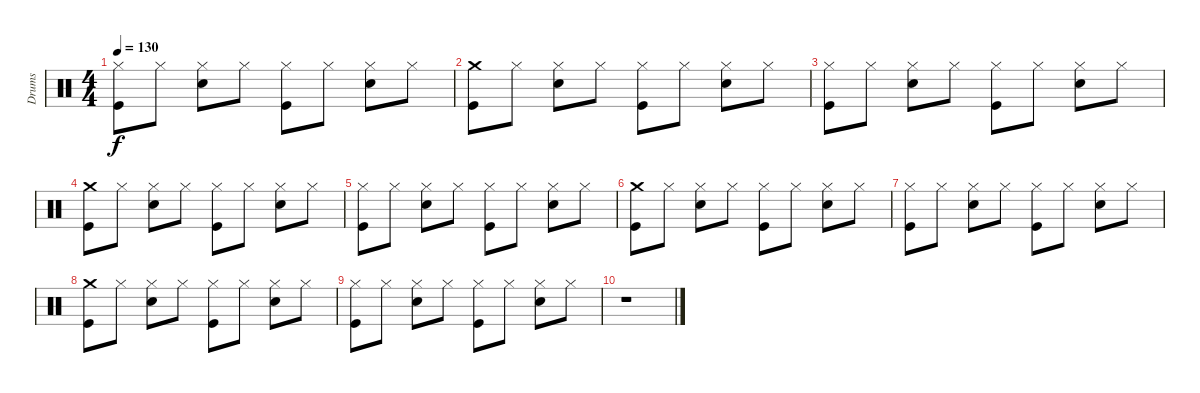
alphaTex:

\track ("Drums" "Drums") {instrument percussion}
\staff {score}
\articulation defaults
\ts (4 4)
\tempo 130
\clef neutral
\ks c
("Hi-Hat (closed)" "Kick (hit)").8{dy f} "Hi-Hat (closed)".8 ("Snare (hit) 2" "Hi-Hat (closed)").8 "Hi-Hat (closed)".8 ("Hi-Hat (closed)" "Kick (hit)").8 "Hi-Hat (closed)".8 ("Snare (hit) 2" "Hi-Hat (closed)").8 "Hi-Hat (closed)".8 |
("Crash medium (hit)" "Kick (hit)").8 "Hi-Hat (closed)".8 ("Snare (hit) 2" "Hi-Hat (closed)").8 "Hi-Hat (closed)".8 ("Hi-Hat (closed)" "Kick (hit)").8 "Hi-Hat (closed)".8 ("Snare (hit) 2" "Hi-Hat (closed)").8 "Hi-Hat (closed)".8 |
("Hi-Hat (closed)" "Kick (hit)").8 "Hi-Hat (closed)".8 ("Snare (hit) 2" "Hi-Hat (closed)").8 "Hi-Hat (closed)".8 ("Hi-Hat (closed)" "Kick (hit)").8 "Hi-Hat (closed)".8 ("Snare (hit) 2" "Hi-Hat (closed)").8 "Hi-Hat (closed)".8 |
("Crash medium (hit)" "Kick (hit)").8 "Hi-Hat (closed)".8 ("Snare (hit) 2" "Hi-Hat (closed)").8 "Hi-Hat (closed)".8 ("Hi-Hat (closed)" "Kick (hit)").8 "Hi-Hat (closed)".8 ("Snare (hit) 2" "Hi-Hat (closed)").8 "Hi-Hat (closed)".8 |
("Hi-Hat (closed)" "Kick (hit)").8 "Hi-Hat (closed)".8 ("Snare (hit) 2" "Hi-Hat (closed)").8 "Hi-Hat (closed)".8 ("Hi-Hat (closed)" "Kick (hit)").8 "Hi-Hat (closed)".8 ("Snare (hit) 2" "Hi-Hat (closed)").8 "Hi-Hat (closed)".8 |
("Crash medium (hit)" "Kick (hit)").8 "Hi-Hat (closed)".8 ("Snare (hit) 2" "Hi-Hat (closed)").8 "Hi-Hat (closed)".8 ("Hi-Hat (closed)" "Kick (hit)").8 "Hi-Hat (closed)".8 ("Snare (hit) 2" "Hi-Hat (closed)").8 "Hi-Hat (closed)".8 |
("Hi-Hat (closed)" "Kick (hit)").8 "Hi-Hat (closed)".8 ("Snare (hit) 2" "Hi-Hat (closed)").8 "Hi-Hat (closed)".8 ("Hi-Hat (closed)" "Kick (hit)").8 "Hi-Hat (closed)".8 ("Snare (hit) 2" "Hi-Hat (closed)").8 "Hi-Hat (closed)".8 |
("Crash medium (hit)" "Kick (hit)").8 "Hi-Hat (closed)".8 ("Snare (hit) 2" "Hi-Hat (closed)").8 "Hi-Hat (closed)".8 ("Hi-Hat (closed)" "Kick (hit)").8 "Hi-Hat (closed)".8 ("Snare (hit) 2" "Hi-Hat (closed)").8 "Hi-Hat (closed)".8 |
("Hi-Hat (closed)" "Kick (hit)").8 "Hi-Hat (closed)".8 ("Snare (hit) 2" "Hi-Hat (closed)").8 "Hi-Hat (closed)".8 ("Hi-Hat (closed)" "Kick (hit)").8 "Hi-Hat (closed)".8 ("Snare (hit) 2" "Hi-Hat (closed)").8 "Hi-Hat (closed)".8 |
r.1
